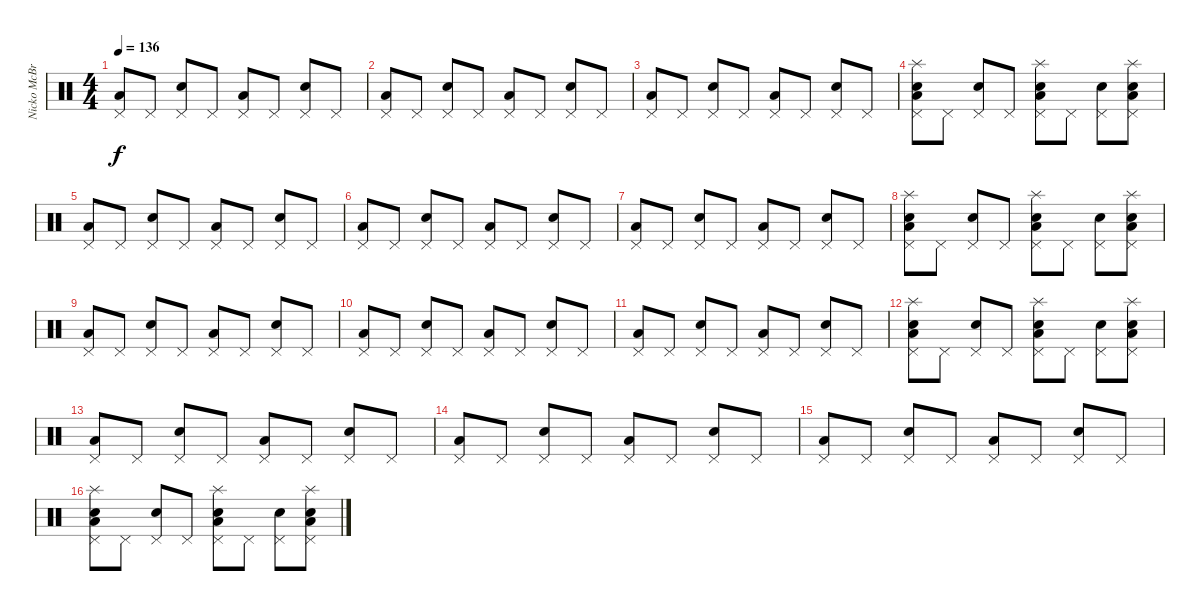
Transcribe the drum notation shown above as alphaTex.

\track ("Nicko McBrian" "Nicko McBr") {instrument percussion}
\staff {score}
\articulation defaults
\ts (4 4)
\tempo 136
\clef neutral
\ks c
("Low Floor Tom (hit)" "Pedal Hi-Hat (hit)").8{dy f} "Pedal Hi-Hat (hit)".8 ("Electric Snare (hit)" "Pedal Hi-Hat (hit)").8 "Pedal Hi-Hat (hit)".8 ("Low Floor Tom (hit)" "Pedal Hi-Hat (hit)").8 "Pedal Hi-Hat (hit)".8 ("Electric Snare (hit)" "Pedal Hi-Hat (hit)").8 "Pedal Hi-Hat (hit)".8 |
("Low Floor Tom (hit)" "Pedal Hi-Hat (hit)").8 "Pedal Hi-Hat (hit)".8 ("Electric Snare (hit)" "Pedal Hi-Hat (hit)").8 "Pedal Hi-Hat (hit)".8 ("Low Floor Tom (hit)" "Pedal Hi-Hat (hit)").8 "Pedal Hi-Hat (hit)".8 ("Electric Snare (hit)" "Pedal Hi-Hat (hit)").8 "Pedal Hi-Hat (hit)".8 |
("Low Floor Tom (hit)" "Pedal Hi-Hat (hit)").8 "Pedal Hi-Hat (hit)".8 ("Electric Snare (hit)" "Pedal Hi-Hat (hit)").8 "Pedal Hi-Hat (hit)".8 ("Low Floor Tom (hit)" "Pedal Hi-Hat (hit)").8 "Pedal Hi-Hat (hit)".8 ("Electric Snare (hit)" "Pedal Hi-Hat (hit)").8 "Pedal Hi-Hat (hit)".8 |
("Electric Snare (hit)" "Low Floor Tom (hit)" "Pedal Hi-Hat (hit)" "Splash (hit)").8 "Pedal Hi-Hat (hit)".8 ("Electric Snare (hit)" "Pedal Hi-Hat (hit)").8 "Pedal Hi-Hat (hit)".8 ("Electric Snare (hit)" "Low Floor Tom (hit)" "Pedal Hi-Hat (hit)" "Splash (hit)").8 "Pedal Hi-Hat (hit)".8 ("Electric Snare (hit)" "Pedal Hi-Hat (hit)").8 ("Electric Snare (hit)" "Low Floor Tom (hit)" "Pedal Hi-Hat (hit)" "Splash (hit)").8 |
("Low Floor Tom (hit)" "Pedal Hi-Hat (hit)").8 "Pedal Hi-Hat (hit)".8 ("Electric Snare (hit)" "Pedal Hi-Hat (hit)").8 "Pedal Hi-Hat (hit)".8 ("Low Floor Tom (hit)" "Pedal Hi-Hat (hit)").8 "Pedal Hi-Hat (hit)".8 ("Electric Snare (hit)" "Pedal Hi-Hat (hit)").8 "Pedal Hi-Hat (hit)".8 |
("Low Floor Tom (hit)" "Pedal Hi-Hat (hit)").8 "Pedal Hi-Hat (hit)".8 ("Electric Snare (hit)" "Pedal Hi-Hat (hit)").8 "Pedal Hi-Hat (hit)".8 ("Low Floor Tom (hit)" "Pedal Hi-Hat (hit)").8 "Pedal Hi-Hat (hit)".8 ("Electric Snare (hit)" "Pedal Hi-Hat (hit)").8 "Pedal Hi-Hat (hit)".8 |
("Low Floor Tom (hit)" "Pedal Hi-Hat (hit)").8 "Pedal Hi-Hat (hit)".8 ("Electric Snare (hit)" "Pedal Hi-Hat (hit)").8 "Pedal Hi-Hat (hit)".8 ("Low Floor Tom (hit)" "Pedal Hi-Hat (hit)").8 "Pedal Hi-Hat (hit)".8 ("Electric Snare (hit)" "Pedal Hi-Hat (hit)").8 "Pedal Hi-Hat (hit)".8 |
("Electric Snare (hit)" "Low Floor Tom (hit)" "Pedal Hi-Hat (hit)" "Splash (hit)").8 "Pedal Hi-Hat (hit)".8 ("Electric Snare (hit)" "Pedal Hi-Hat (hit)").8 "Pedal Hi-Hat (hit)".8 ("Electric Snare (hit)" "Low Floor Tom (hit)" "Pedal Hi-Hat (hit)" "Splash (hit)").8 "Pedal Hi-Hat (hit)".8 ("Electric Snare (hit)" "Pedal Hi-Hat (hit)").8 ("Electric Snare (hit)" "Low Floor Tom (hit)" "Pedal Hi-Hat (hit)" "Splash (hit)").8 |
("Low Floor Tom (hit)" "Pedal Hi-Hat (hit)").8 "Pedal Hi-Hat (hit)".8 ("Electric Snare (hit)" "Pedal Hi-Hat (hit)").8 "Pedal Hi-Hat (hit)".8 ("Low Floor Tom (hit)" "Pedal Hi-Hat (hit)").8 "Pedal Hi-Hat (hit)".8 ("Electric Snare (hit)" "Pedal Hi-Hat (hit)").8 "Pedal Hi-Hat (hit)".8 |
("Low Floor Tom (hit)" "Pedal Hi-Hat (hit)").8 "Pedal Hi-Hat (hit)".8 ("Electric Snare (hit)" "Pedal Hi-Hat (hit)").8 "Pedal Hi-Hat (hit)".8 ("Low Floor Tom (hit)" "Pedal Hi-Hat (hit)").8 "Pedal Hi-Hat (hit)".8 ("Electric Snare (hit)" "Pedal Hi-Hat (hit)").8 "Pedal Hi-Hat (hit)".8 |
("Low Floor Tom (hit)" "Pedal Hi-Hat (hit)").8 "Pedal Hi-Hat (hit)".8 ("Electric Snare (hit)" "Pedal Hi-Hat (hit)").8 "Pedal Hi-Hat (hit)".8 ("Low Floor Tom (hit)" "Pedal Hi-Hat (hit)").8 "Pedal Hi-Hat (hit)".8 ("Electric Snare (hit)" "Pedal Hi-Hat (hit)").8 "Pedal Hi-Hat (hit)".8 |
("Electric Snare (hit)" "Low Floor Tom (hit)" "Pedal Hi-Hat (hit)" "Splash (hit)").8 "Pedal Hi-Hat (hit)".8 ("Electric Snare (hit)" "Pedal Hi-Hat (hit)").8 "Pedal Hi-Hat (hit)".8 ("Electric Snare (hit)" "Low Floor Tom (hit)" "Pedal Hi-Hat (hit)" "Splash (hit)").8 "Pedal Hi-Hat (hit)".8 ("Electric Snare (hit)" "Pedal Hi-Hat (hit)").8 ("Electric Snare (hit)" "Low Floor Tom (hit)" "Pedal Hi-Hat (hit)" "Splash (hit)").8 |
("Low Floor Tom (hit)" "Pedal Hi-Hat (hit)").8 "Pedal Hi-Hat (hit)".8 ("Electric Snare (hit)" "Pedal Hi-Hat (hit)").8 "Pedal Hi-Hat (hit)".8 ("Low Floor Tom (hit)" "Pedal Hi-Hat (hit)").8 "Pedal Hi-Hat (hit)".8 ("Electric Snare (hit)" "Pedal Hi-Hat (hit)").8 "Pedal Hi-Hat (hit)".8 |
("Low Floor Tom (hit)" "Pedal Hi-Hat (hit)").8 "Pedal Hi-Hat (hit)".8 ("Electric Snare (hit)" "Pedal Hi-Hat (hit)").8 "Pedal Hi-Hat (hit)".8 ("Low Floor Tom (hit)" "Pedal Hi-Hat (hit)").8 "Pedal Hi-Hat (hit)".8 ("Electric Snare (hit)" "Pedal Hi-Hat (hit)").8 "Pedal Hi-Hat (hit)".8 |
("Low Floor Tom (hit)" "Pedal Hi-Hat (hit)").8 "Pedal Hi-Hat (hit)".8 ("Electric Snare (hit)" "Pedal Hi-Hat (hit)").8 "Pedal Hi-Hat (hit)".8 ("Low Floor Tom (hit)" "Pedal Hi-Hat (hit)").8 "Pedal Hi-Hat (hit)".8 ("Electric Snare (hit)" "Pedal Hi-Hat (hit)").8 "Pedal Hi-Hat (hit)".8 |
("Electric Snare (hit)" "Low Floor Tom (hit)" "Pedal Hi-Hat (hit)" "Splash (hit)").8 "Pedal Hi-Hat (hit)".8 ("Electric Snare (hit)" "Pedal Hi-Hat (hit)").8 "Pedal Hi-Hat (hit)".8 ("Electric Snare (hit)" "Low Floor Tom (hit)" "Pedal Hi-Hat (hit)" "Splash (hit)").8 "Pedal Hi-Hat (hit)".8 ("Electric Snare (hit)" "Pedal Hi-Hat (hit)").8 ("Electric Snare (hit)" "Low Floor Tom (hit)" "Pedal Hi-Hat (hit)" "Splash (hit)").8
